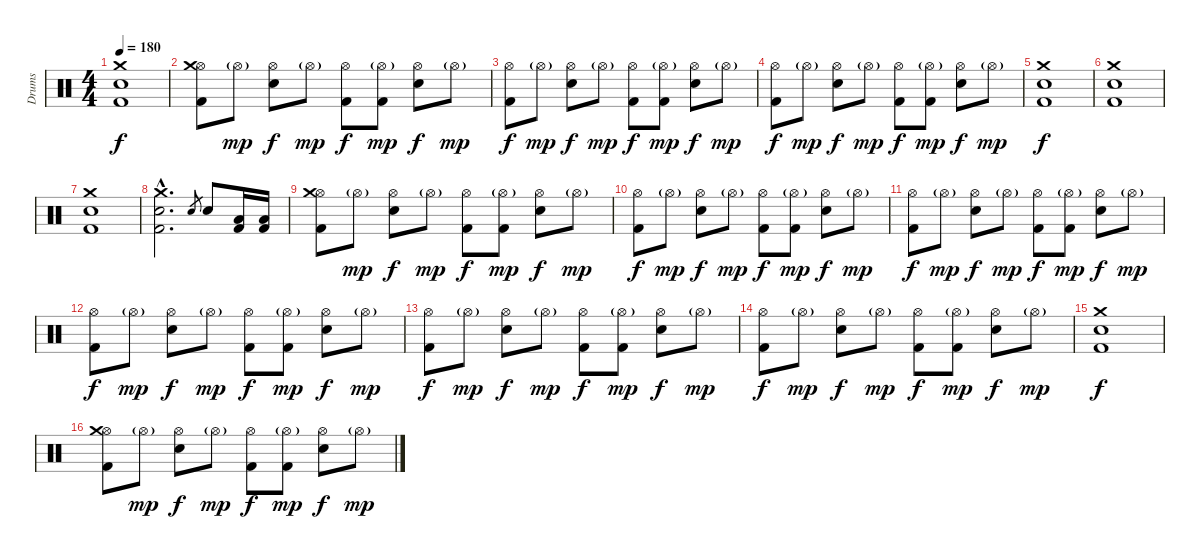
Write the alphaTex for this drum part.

\track ("Drums" "Drums") {instrument percussion}
\staff {score}
\articulation defaults
\ts (4 4)
\tempo 180
\clef neutral
\ks c
("Crash medium (hit)" "Electric Snare (hit)" "Kick (hit) 2").1{dy f} |
("Hi-Hat (open)" "Crash medium (hit)" "Kick (hit) 2").8 "Hi-Hat (open)"{g}.8{dy mp} ("Hi-Hat (open)" "Electric Snare (hit)").8{dy f} "Hi-Hat (open)"{g}.8{dy mp} ("Hi-Hat (open)" "Kick (hit) 2").8{dy f} ("Hi-Hat (open)"{g} "Kick (hit) 2").8{dy mp} ("Hi-Hat (open)" "Electric Snare (hit)").8{dy f} "Hi-Hat (open)"{g}.8{dy mp} |
("Hi-Hat (open)" "Kick (hit) 2").8{dy f} "Hi-Hat (open)"{g}.8{dy mp} ("Hi-Hat (open)" "Electric Snare (hit)").8{dy f} "Hi-Hat (open)"{g}.8{dy mp} ("Hi-Hat (open)" "Kick (hit) 2").8{dy f} ("Hi-Hat (open)"{g} "Kick (hit) 2").8{dy mp} ("Hi-Hat (open)" "Electric Snare (hit)").8{dy f} "Hi-Hat (open)"{g}.8{dy mp} |
("Hi-Hat (open)" "Kick (hit) 2").8{dy f} "Hi-Hat (open)"{g}.8{dy mp} ("Hi-Hat (open)" "Electric Snare (hit)").8{dy f} "Hi-Hat (open)"{g}.8{dy mp} ("Hi-Hat (open)" "Kick (hit) 2").8{dy f} ("Hi-Hat (open)"{g} "Kick (hit) 2").8{dy mp} ("Hi-Hat (open)" "Electric Snare (hit)").8{dy f} "Hi-Hat (open)"{g}.8{dy mp} |
("Crash medium (hit)" "Electric Snare (hit)" "Kick (hit) 2").1{dy f} |
("Crash medium (hit)" "Electric Snare (hit)" "Kick (hit) 2").1 |
("Crash medium (hit)" "Electric Snare (hit)" "Kick (hit) 2").1 |
("Crash medium (hit)"{hac} "Electric Snare (hit)"{hac} "Kick (hit) 2"{hac}).2{d} "Electric Snare (hit)".8{gr} "Electric Snare (hit)".8 ("Low Tom (hit)" "Kick (hit) 2").16 ("Low Tom (hit)" "Kick (hit) 2").16 |
("Hi-Hat (open)" "Crash medium (hit)" "Kick (hit) 2").8 "Hi-Hat (open)"{g}.8{dy mp} ("Hi-Hat (open)" "Electric Snare (hit)").8{dy f} "Hi-Hat (open)"{g}.8{dy mp} ("Hi-Hat (open)" "Kick (hit) 2").8{dy f} ("Hi-Hat (open)"{g} "Kick (hit) 2").8{dy mp} ("Hi-Hat (open)" "Electric Snare (hit)").8{dy f} "Hi-Hat (open)"{g}.8{dy mp} |
("Hi-Hat (open)" "Kick (hit) 2").8{dy f} "Hi-Hat (open)"{g}.8{dy mp} ("Hi-Hat (open)" "Electric Snare (hit)").8{dy f} "Hi-Hat (open)"{g}.8{dy mp} ("Hi-Hat (open)" "Kick (hit) 2").8{dy f} ("Hi-Hat (open)"{g} "Kick (hit) 2").8{dy mp} ("Hi-Hat (open)" "Electric Snare (hit)").8{dy f} "Hi-Hat (open)"{g}.8{dy mp} |
("Hi-Hat (open)" "Kick (hit) 2").8{dy f} "Hi-Hat (open)"{g}.8{dy mp} ("Hi-Hat (open)" "Electric Snare (hit)").8{dy f} "Hi-Hat (open)"{g}.8{dy mp} ("Hi-Hat (open)" "Kick (hit) 2").8{dy f} ("Hi-Hat (open)"{g} "Kick (hit) 2").8{dy mp} ("Hi-Hat (open)" "Electric Snare (hit)").8{dy f} "Hi-Hat (open)"{g}.8{dy mp} |
("Hi-Hat (open)" "Kick (hit) 2").8{dy f} "Hi-Hat (open)"{g}.8{dy mp} ("Hi-Hat (open)" "Electric Snare (hit)").8{dy f} "Hi-Hat (open)"{g}.8{dy mp} ("Hi-Hat (open)" "Kick (hit) 2").8{dy f} ("Hi-Hat (open)"{g} "Kick (hit) 2").8{dy mp} ("Hi-Hat (open)" "Electric Snare (hit)").8{dy f} "Hi-Hat (open)"{g}.8{dy mp} |
("Hi-Hat (open)" "Kick (hit) 2").8{dy f} "Hi-Hat (open)"{g}.8{dy mp} ("Hi-Hat (open)" "Electric Snare (hit)").8{dy f} "Hi-Hat (open)"{g}.8{dy mp} ("Hi-Hat (open)" "Kick (hit) 2").8{dy f} ("Hi-Hat (open)"{g} "Kick (hit) 2").8{dy mp} ("Hi-Hat (open)" "Electric Snare (hit)").8{dy f} "Hi-Hat (open)"{g}.8{dy mp} |
("Hi-Hat (open)" "Kick (hit) 2").8{dy f} "Hi-Hat (open)"{g}.8{dy mp} ("Hi-Hat (open)" "Electric Snare (hit)").8{dy f} "Hi-Hat (open)"{g}.8{dy mp} ("Hi-Hat (open)" "Kick (hit) 2").8{dy f} ("Hi-Hat (open)"{g} "Kick (hit) 2").8{dy mp} ("Hi-Hat (open)" "Electric Snare (hit)").8{dy f} "Hi-Hat (open)"{g}.8{dy mp} |
("Crash medium (hit)" "Electric Snare (hit)" "Kick (hit) 2").1{dy f} |
("Hi-Hat (open)" "Crash medium (hit)" "Kick (hit) 2").8 "Hi-Hat (open)"{g}.8{dy mp} ("Hi-Hat (open)" "Electric Snare (hit)").8{dy f} "Hi-Hat (open)"{g}.8{dy mp} ("Hi-Hat (open)" "Kick (hit) 2").8{dy f} ("Hi-Hat (open)"{g} "Kick (hit) 2").8{dy mp} ("Hi-Hat (open)" "Electric Snare (hit)").8{dy f} "Hi-Hat (open)"{g}.8{dy mp}
